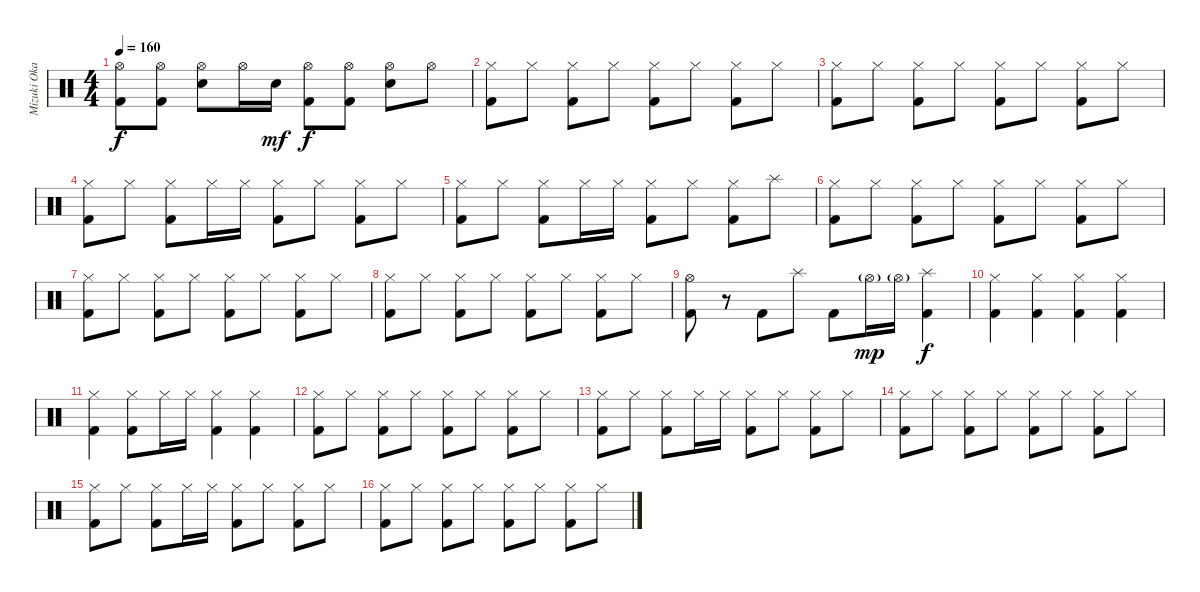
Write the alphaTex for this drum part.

\track ("Mizuki Okajima (Drums)" "Mizuki Oka") {instrument percussion}
\staff {score}
\articulation defaults
\ts (4 4)
\tempo 160
\clef neutral
\ks c
("Hi-Hat (open)" "Kick (hit) 2").8{dy f} ("Hi-Hat (open)" "Kick (hit) 2").8 ("Hi-Hat (open)" "Snare (hit) 2").8 "Hi-Hat (open)".16 "Snare (hit) 2".16{dy mf} ("Hi-Hat (open)" "Kick (hit) 2").8{dy f} ("Hi-Hat (open)" "Kick (hit) 2").8 ("Hi-Hat (open)" "Snare (hit) 2").8 "Hi-Hat (open)".8 |
("Hi-Hat (closed)" "Kick (hit) 2").8 "Hi-Hat (closed)".8 ("Hi-Hat (closed)" "Kick (hit) 2").8 "Hi-Hat (closed)".8 ("Hi-Hat (closed)" "Kick (hit) 2").8 "Hi-Hat (closed)".8 ("Hi-Hat (closed)" "Kick (hit) 2").8 "Hi-Hat (closed)".8 |
("Hi-Hat (closed)" "Kick (hit) 2").8 "Hi-Hat (closed)".8 ("Hi-Hat (closed)" "Kick (hit) 2").8 "Hi-Hat (closed)".8 ("Hi-Hat (closed)" "Kick (hit) 2").8 "Hi-Hat (closed)".8 ("Hi-Hat (closed)" "Kick (hit) 2").8 "Hi-Hat (closed)".8 |
("Hi-Hat (closed)" "Kick (hit) 2").8 "Hi-Hat (closed)".8 ("Hi-Hat (closed)" "Kick (hit) 2").8 "Hi-Hat (closed)".16 "Hi-Hat (closed)".16 ("Hi-Hat (closed)" "Kick (hit) 2").8 "Hi-Hat (closed)".8 ("Hi-Hat (closed)" "Kick (hit) 2").8 "Hi-Hat (closed)".8 |
("Hi-Hat (closed)" "Kick (hit) 2").8 "Hi-Hat (closed)".8 ("Hi-Hat (closed)" "Kick (hit) 2").8 "Hi-Hat (closed)".16 "Hi-Hat (closed)".16 ("Hi-Hat (closed)" "Kick (hit) 2").8 "Hi-Hat (closed)".8 ("Hi-Hat (closed)" "Kick (hit) 2").8 "Splash (hit)".8 |
("Hi-Hat (closed)" "Kick (hit) 2").8 "Hi-Hat (closed)".8 ("Hi-Hat (closed)" "Kick (hit) 2").8 "Hi-Hat (closed)".8 ("Hi-Hat (closed)" "Kick (hit) 2").8 "Hi-Hat (closed)".8 ("Hi-Hat (closed)" "Kick (hit) 2").8 "Hi-Hat (closed)".8 |
("Hi-Hat (closed)" "Kick (hit) 2").8 "Hi-Hat (closed)".8 ("Hi-Hat (closed)" "Kick (hit) 2").8 "Hi-Hat (closed)".8 ("Hi-Hat (closed)" "Kick (hit) 2").8 "Hi-Hat (closed)".8 ("Hi-Hat (closed)" "Kick (hit) 2").8 "Hi-Hat (closed)".8 |
("Hi-Hat (closed)" "Kick (hit) 2").8 "Hi-Hat (closed)".8 ("Hi-Hat (closed)" "Kick (hit) 2").8 "Hi-Hat (closed)".8 ("Hi-Hat (closed)" "Kick (hit) 2").8 "Hi-Hat (closed)".8 ("Hi-Hat (closed)" "Kick (hit) 2").8 "Hi-Hat (closed)".8 |
("Hi-Hat (open)" "Kick (hit) 2").8 r.8 "Kick (hit) 2".8 "Splash (hit)".8 "Kick (hit) 2".8 "Hi-Hat (open)"{g}.16{dy mp} "Hi-Hat (open)"{g}.16 ("Splash (hit)" "Kick (hit) 2").4{dy f} |
("Hi-Hat (closed)" "Kick (hit) 2").4 ("Hi-Hat (closed)" "Kick (hit) 2").4 ("Hi-Hat (closed)" "Kick (hit) 2").4 ("Hi-Hat (closed)" "Kick (hit) 2").4 |
("Hi-Hat (closed)" "Kick (hit) 2").4 ("Hi-Hat (closed)" "Kick (hit) 2").8 "Hi-Hat (closed)".16 "Hi-Hat (closed)".16 ("Hi-Hat (closed)" "Kick (hit) 2").4 ("Hi-Hat (closed)" "Kick (hit) 2").4 |
("Hi-Hat (closed)" "Kick (hit) 2").8 "Hi-Hat (closed)".8 ("Hi-Hat (closed)" "Kick (hit) 2").8 "Hi-Hat (closed)".8 ("Hi-Hat (closed)" "Kick (hit) 2").8 "Hi-Hat (closed)".8 ("Hi-Hat (closed)" "Kick (hit) 2").8 "Hi-Hat (closed)".8 |
("Hi-Hat (closed)" "Kick (hit) 2").8 "Hi-Hat (closed)".8 ("Hi-Hat (closed)" "Kick (hit) 2").8 "Hi-Hat (closed)".16 "Hi-Hat (closed)".16 ("Hi-Hat (closed)" "Kick (hit) 2").8 "Hi-Hat (closed)".8 ("Hi-Hat (closed)" "Kick (hit) 2").8 "Hi-Hat (closed)".8 |
("Hi-Hat (closed)" "Kick (hit) 2").8 "Hi-Hat (closed)".8 ("Hi-Hat (closed)" "Kick (hit) 2").8 "Hi-Hat (closed)".8 ("Hi-Hat (closed)" "Kick (hit) 2").8 "Hi-Hat (closed)".8 ("Hi-Hat (closed)" "Kick (hit) 2").8 "Hi-Hat (closed)".8 |
("Hi-Hat (closed)" "Kick (hit) 2").8 "Hi-Hat (closed)".8 ("Hi-Hat (closed)" "Kick (hit) 2").8 "Hi-Hat (closed)".16 "Hi-Hat (closed)".16 ("Hi-Hat (closed)" "Kick (hit) 2").8 "Hi-Hat (closed)".8 ("Hi-Hat (closed)" "Kick (hit) 2").8 "Hi-Hat (closed)".8 |
("Hi-Hat (closed)" "Kick (hit) 2").8 "Hi-Hat (closed)".8 ("Hi-Hat (closed)" "Kick (hit) 2").8 "Hi-Hat (closed)".8 ("Hi-Hat (closed)" "Kick (hit) 2").8 "Hi-Hat (closed)".8 ("Hi-Hat (closed)" "Kick (hit) 2").8 "Hi-Hat (closed)".8
